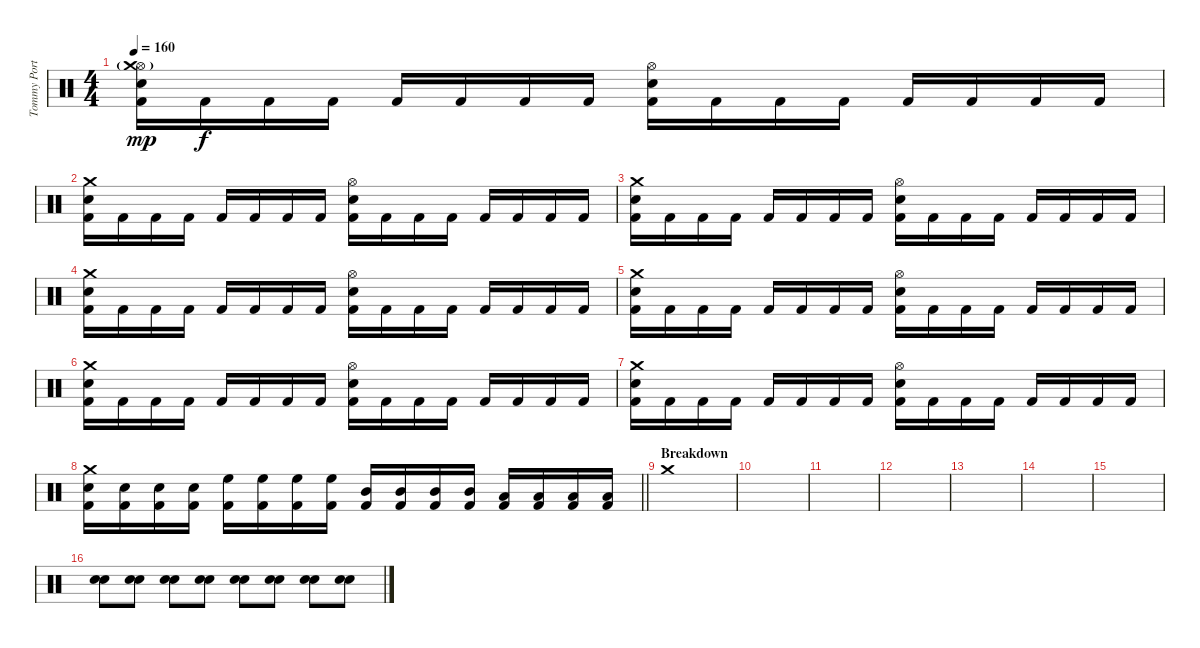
\track ("Tommy Portino" "Tommy Port") {instrument percussion}
\staff {score}
\articulation defaults
\ts (4 4)
\tempo 160
\clef neutral
\ks c
("Hi-Hat (open)"{g} "Crash medium (hit)" "Snare (hit) 2" "Kick (hit) 2").16{dy mp} "Kick (hit) 2".16{dy f} "Kick (hit) 2".16 "Kick (hit) 2".16 "Kick (hit) 2".16 "Kick (hit) 2".16 "Kick (hit) 2".16 "Kick (hit) 2".16 ("Hi-Hat (open)" "Snare (hit) 2" "Kick (hit) 2").16 "Kick (hit) 2".16 "Kick (hit) 2".16 "Kick (hit) 2".16 "Kick (hit) 2".16 "Kick (hit) 2".16 "Kick (hit) 2".16 "Kick (hit) 2".16 |
("Crash medium (hit)" "Snare (hit) 2" "Kick (hit) 2").16 "Kick (hit) 2".16 "Kick (hit) 2".16 "Kick (hit) 2".16 "Kick (hit) 2".16 "Kick (hit) 2".16 "Kick (hit) 2".16 "Kick (hit) 2".16 ("Hi-Hat (open)" "Snare (hit) 2" "Kick (hit) 2").16 "Kick (hit) 2".16 "Kick (hit) 2".16 "Kick (hit) 2".16 "Kick (hit) 2".16 "Kick (hit) 2".16 "Kick (hit) 2".16 "Kick (hit) 2".16 |
("Crash medium (hit)" "Snare (hit) 2" "Kick (hit) 2").16 "Kick (hit) 2".16 "Kick (hit) 2".16 "Kick (hit) 2".16 "Kick (hit) 2".16 "Kick (hit) 2".16 "Kick (hit) 2".16 "Kick (hit) 2".16 ("Hi-Hat (open)" "Snare (hit) 2" "Kick (hit) 2").16 "Kick (hit) 2".16 "Kick (hit) 2".16 "Kick (hit) 2".16 "Kick (hit) 2".16 "Kick (hit) 2".16 "Kick (hit) 2".16 "Kick (hit) 2".16 |
("Crash medium (hit)" "Snare (hit) 2" "Kick (hit) 2").16 "Kick (hit) 2".16 "Kick (hit) 2".16 "Kick (hit) 2".16 "Kick (hit) 2".16 "Kick (hit) 2".16 "Kick (hit) 2".16 "Kick (hit) 2".16 ("Hi-Hat (open)" "Snare (hit) 2" "Kick (hit) 2").16 "Kick (hit) 2".16 "Kick (hit) 2".16 "Kick (hit) 2".16 "Kick (hit) 2".16 "Kick (hit) 2".16 "Kick (hit) 2".16 "Kick (hit) 2".16 |
("Crash medium (hit)" "Snare (hit) 2" "Kick (hit) 2").16 "Kick (hit) 2".16 "Kick (hit) 2".16 "Kick (hit) 2".16 "Kick (hit) 2".16 "Kick (hit) 2".16 "Kick (hit) 2".16 "Kick (hit) 2".16 ("Hi-Hat (open)" "Snare (hit) 2" "Kick (hit) 2").16 "Kick (hit) 2".16 "Kick (hit) 2".16 "Kick (hit) 2".16 "Kick (hit) 2".16 "Kick (hit) 2".16 "Kick (hit) 2".16 "Kick (hit) 2".16 |
("Crash medium (hit)" "Snare (hit) 2" "Kick (hit) 2").16 "Kick (hit) 2".16 "Kick (hit) 2".16 "Kick (hit) 2".16 "Kick (hit) 2".16 "Kick (hit) 2".16 "Kick (hit) 2".16 "Kick (hit) 2".16 ("Hi-Hat (open)" "Snare (hit) 2" "Kick (hit) 2").16 "Kick (hit) 2".16 "Kick (hit) 2".16 "Kick (hit) 2".16 "Kick (hit) 2".16 "Kick (hit) 2".16 "Kick (hit) 2".16 "Kick (hit) 2".16 |
("Crash medium (hit)" "Snare (hit) 2" "Kick (hit) 2").16 "Kick (hit) 2".16 "Kick (hit) 2".16 "Kick (hit) 2".16 "Kick (hit) 2".16 "Kick (hit) 2".16 "Kick (hit) 2".16 "Kick (hit) 2".16 ("Hi-Hat (open)" "Snare (hit) 2" "Kick (hit) 2").16 "Kick (hit) 2".16 "Kick (hit) 2".16 "Kick (hit) 2".16 "Kick (hit) 2".16 "Kick (hit) 2".16 "Kick (hit) 2".16 "Kick (hit) 2".16 |
\barLineRight lightlight
("Crash medium (hit)" "Snare (hit) 2" "Kick (hit) 2").16 ("Snare (hit) 2" "Kick (hit) 2").16 ("Snare (hit) 2" "Kick (hit) 2").16 ("Snare (hit) 2" "Kick (hit) 2").16 ("High Floor Tom (hit)" "Kick (hit) 2").16 ("High Floor Tom (hit)" "Kick (hit) 2").16 ("High Floor Tom (hit)" "Kick (hit) 2").16 ("High Floor Tom (hit)" "Kick (hit) 2").16 ("Mid Tom (hit)" "Kick (hit) 2").16 ("Mid Tom (hit)" "Kick (hit) 2").16 ("Mid Tom (hit)" "Kick (hit) 2").16 ("Mid Tom (hit)" "Kick (hit) 2").16 ("Low Tom (hit)" "Kick (hit) 2").16 ("Low Tom (hit)" "Kick (hit) 2").16 ("Low Tom (hit)" "Kick (hit) 2").16 ("Low Tom (hit)" "Kick (hit) 2").16 |
\section ("" "Breakdown")
"Crash medium (hit)".1 |
|
|
|
|
|
|
("Snare (hit) 2" "Snare (hit) 2").8 ("Snare (hit) 2" "Snare (hit) 2").8 ("Snare (hit) 2" "Snare (hit) 2").8 ("Snare (hit) 2" "Snare (hit) 2").8 ("Snare (hit) 2" "Snare (hit) 2").8 ("Snare (hit) 2" "Snare (hit) 2").8 ("Snare (hit) 2" "Snare (hit) 2").8 ("Snare (hit) 2" "Snare (hit) 2").8
